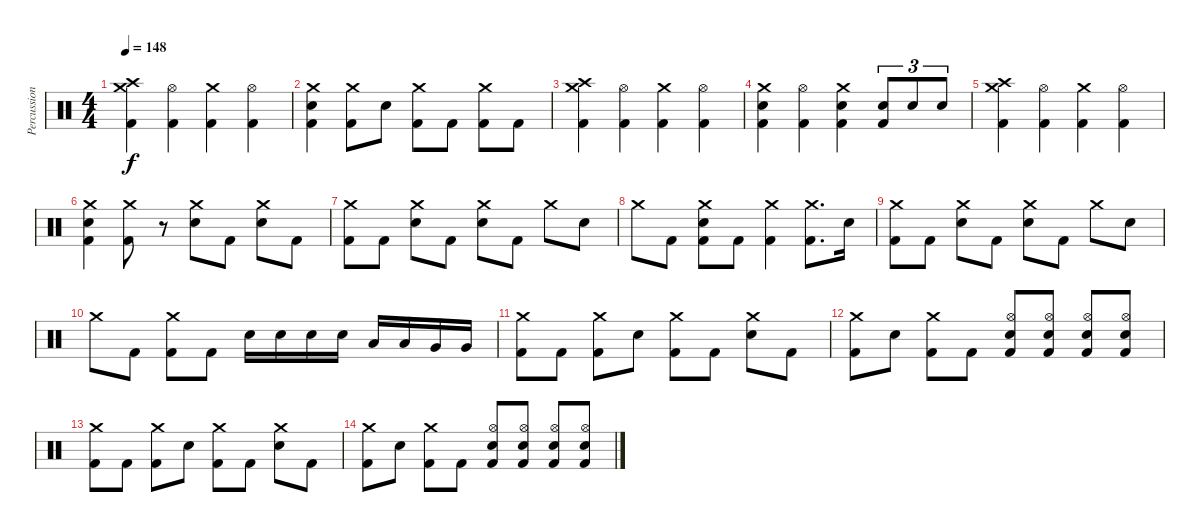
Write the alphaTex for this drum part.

\track ("Percussion" "Percussion") {instrument percussion}
\staff {score}
\articulation defaults
\ts (4 4)
\tempo 148
\clef neutral
\ks c
("Crash medium (hit)" "Crash high (hit)" "Kick (hit) 2").4{dy f} ("Hi-Hat (open)" "Kick (hit) 2").4 ("Crash medium (hit)" "Kick (hit) 2").4 ("Hi-Hat (open)" "Kick (hit) 2").4 |
("Crash medium (hit)" "Electric Snare (hit)" "Kick (hit) 2").4 ("Crash medium (hit)" "Kick (hit) 2").8 "Electric Snare (hit)".8 ("Crash medium (hit)" "Kick (hit) 2").8 "Kick (hit) 2".8 ("Crash medium (hit)" "Kick (hit) 2").8 "Kick (hit) 2".8 |
("Crash medium (hit)" "Crash high (hit)" "Kick (hit) 2").4 ("Hi-Hat (open)" "Kick (hit) 2").4 ("Crash medium (hit)" "Kick (hit) 2").4 ("Hi-Hat (open)" "Kick (hit) 2").4 |
("Crash medium (hit)" "Electric Snare (hit)" "Kick (hit) 2").4 ("Hi-Hat (open)" "Kick (hit) 2").4 ("Crash medium (hit)" "Electric Snare (hit)" "Kick (hit) 2").4 ("Electric Snare (hit)" "Kick (hit) 2").8{tu (3 2)} "Electric Snare (hit)".8{tu (3 2)} "Electric Snare (hit)".8{tu (3 2)} |
("Crash medium (hit)" "Crash high (hit)" "Kick (hit) 2").4 ("Hi-Hat (open)" "Kick (hit) 2").4 ("Crash medium (hit)" "Kick (hit) 2").4 ("Hi-Hat (open)" "Kick (hit) 2").4 |
("Crash medium (hit)" "Electric Snare (hit)" "Kick (hit) 2").4 ("Crash medium (hit)" "Kick (hit) 2").8 r.8 ("Crash medium (hit)" "Electric Snare (hit)").8 "Kick (hit) 2".8 ("Crash medium (hit)" "Electric Snare (hit)").8 "Kick (hit) 2".8 |
("Crash medium (hit)" "Kick (hit) 2").8 "Kick (hit) 2".8 ("Crash medium (hit)" "Electric Snare (hit)").8 "Kick (hit) 2".8 ("Crash medium (hit)" "Electric Snare (hit)").8 "Kick (hit) 2".8 "Crash medium (hit)".8 "Electric Snare (hit)".8 |
"Crash medium (hit)".8 "Kick (hit) 2".8 ("Crash medium (hit)" "Electric Snare (hit)" "Kick (hit) 2").8 "Kick (hit) 2".8 ("Crash medium (hit)" "Kick (hit) 2").4 ("Crash medium (hit)" "Kick (hit) 2").8{d} "Electric Snare (hit)".16 |
("Crash medium (hit)" "Kick (hit) 2").8 "Kick (hit) 2".8 ("Crash medium (hit)" "Electric Snare (hit)").8 "Kick (hit) 2".8 ("Crash medium (hit)" "Electric Snare (hit)").8 "Kick (hit) 2".8 "Crash medium (hit)".8 "Electric Snare (hit)".8 |
"Crash medium (hit)".8 "Kick (hit) 2".8 ("Crash medium (hit)" "Kick (hit) 2").8 "Kick (hit) 2".8 "Electric Snare (hit)".16 "Electric Snare (hit)".16 "Electric Snare (hit)".16 "Electric Snare (hit)".16 "Low Tom (hit)".16 "Low Tom (hit)".16 "Very Low Tom (hit)".16 "Very Low Tom (hit)".16 |
("Crash medium (hit)" "Kick (hit) 2").8 "Kick (hit) 2".8 ("Crash medium (hit)" "Kick (hit) 2").8 "Electric Snare (hit)".8 ("Crash medium (hit)" "Kick (hit) 2").8 "Kick (hit) 2".8 ("Crash medium (hit)" "Electric Snare (hit)").8 "Kick (hit) 2".8 |
("Crash medium (hit)" "Kick (hit) 2").8 "Electric Snare (hit)".8 ("Crash medium (hit)" "Kick (hit) 2").8 "Kick (hit) 2".8 ("Hi-Hat (open)" "Electric Snare (hit)" "Kick (hit) 2").8 ("Hi-Hat (open)" "Electric Snare (hit)" "Kick (hit) 2").8 ("Hi-Hat (open)" "Electric Snare (hit)" "Kick (hit) 2").8 ("Hi-Hat (open)" "Electric Snare (hit)" "Kick (hit) 2").8 |
("Crash medium (hit)" "Kick (hit) 2").8 "Kick (hit) 2".8 ("Crash medium (hit)" "Kick (hit) 2").8 "Electric Snare (hit)".8 ("Crash medium (hit)" "Kick (hit) 2").8 "Kick (hit) 2".8 ("Crash medium (hit)" "Electric Snare (hit)").8 "Kick (hit) 2".8 |
("Crash medium (hit)" "Kick (hit) 2").8 "Electric Snare (hit)".8 ("Crash medium (hit)" "Kick (hit) 2").8 "Kick (hit) 2".8 ("Hi-Hat (open)" "Electric Snare (hit)" "Kick (hit) 2").8 ("Hi-Hat (open)" "Electric Snare (hit)" "Kick (hit) 2").8 ("Hi-Hat (open)" "Electric Snare (hit)" "Kick (hit) 2").8 ("Hi-Hat (open)" "Electric Snare (hit)" "Kick (hit) 2").8
